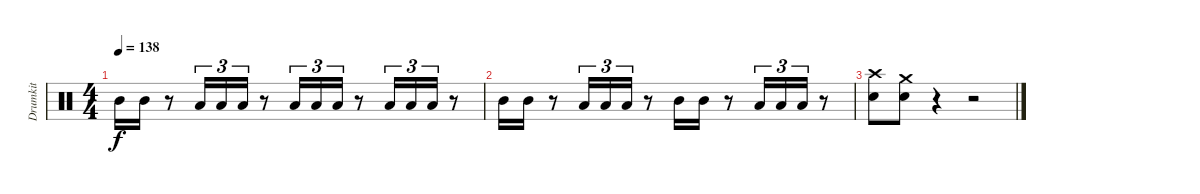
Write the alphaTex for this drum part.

\track ("Drumkit" "Drumkit") {instrument percussion}
\staff {score}
\articulation defaults
\ts (4 4)
\tempo 138
\clef neutral
\ks c "Mid Tom (hit)".16{dy f} "Mid Tom (hit)".16
r.8 "Low Tom (hit)".16{tu (3 2)} "Low Tom (hit)".16{tu (3 2)} "Low Tom (hit)".16{tu (3 2)} r.8 "Low Tom (hit)".16{tu (3 2)} "Low Tom (hit)".16{tu (3 2)} "Low Tom (hit)".16{tu (3 2)} r.8 "Low Tom (hit)".16{tu (3 2)} "Low Tom (hit)".16{tu (3 2)} "Low Tom (hit)".16{tu (3 2)} r.8 |
"Mid Tom (hit)".16 "Mid Tom (hit)".16 r.8 "Low Tom (hit)".16{tu (3 2)} "Low Tom (hit)".16{tu (3 2)} "Low Tom (hit)".16{tu (3 2)} r.8 "Mid Tom (hit)".16 "Mid Tom (hit)".16 r.8 "Low Tom (hit)".16{tu (3 2)} "Low Tom (hit)".16{tu (3 2)} "Low Tom (hit)".16{tu (3 2)} r.8 |
("Snare (hit) 2" "Crash high (hit)").8 ("Snare (hit) 2" "Crash medium (hit)").8 r.4 r.2
